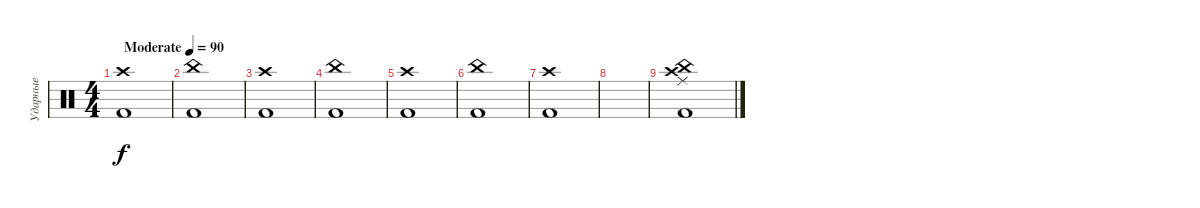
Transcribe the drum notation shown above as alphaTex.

\track ("Ударные" "Ударные") {instrument percussion}
\staff {score}
\articulation defaults
\ts (4 4)
\tempo (90 "Moderate")
\clef neutral
\ks c
("Kick (hit) 2" "Crash high (hit)").1{dy f} |
("Kick (hit) 2" "China (hit)").1 |
("Kick (hit) 2" "Crash high (hit)").1 |
("Kick (hit) 2" "China (hit)").1 |
("Kick (hit) 2" "Crash high (hit)").1 |
("Kick (hit) 2" "China (hit)").1 |
("Kick (hit) 2" "Crash high (hit)").1 |
|
("Kick (hit) 2" "Ride (middle)" "China (hit)" "Crash high (hit)").1
